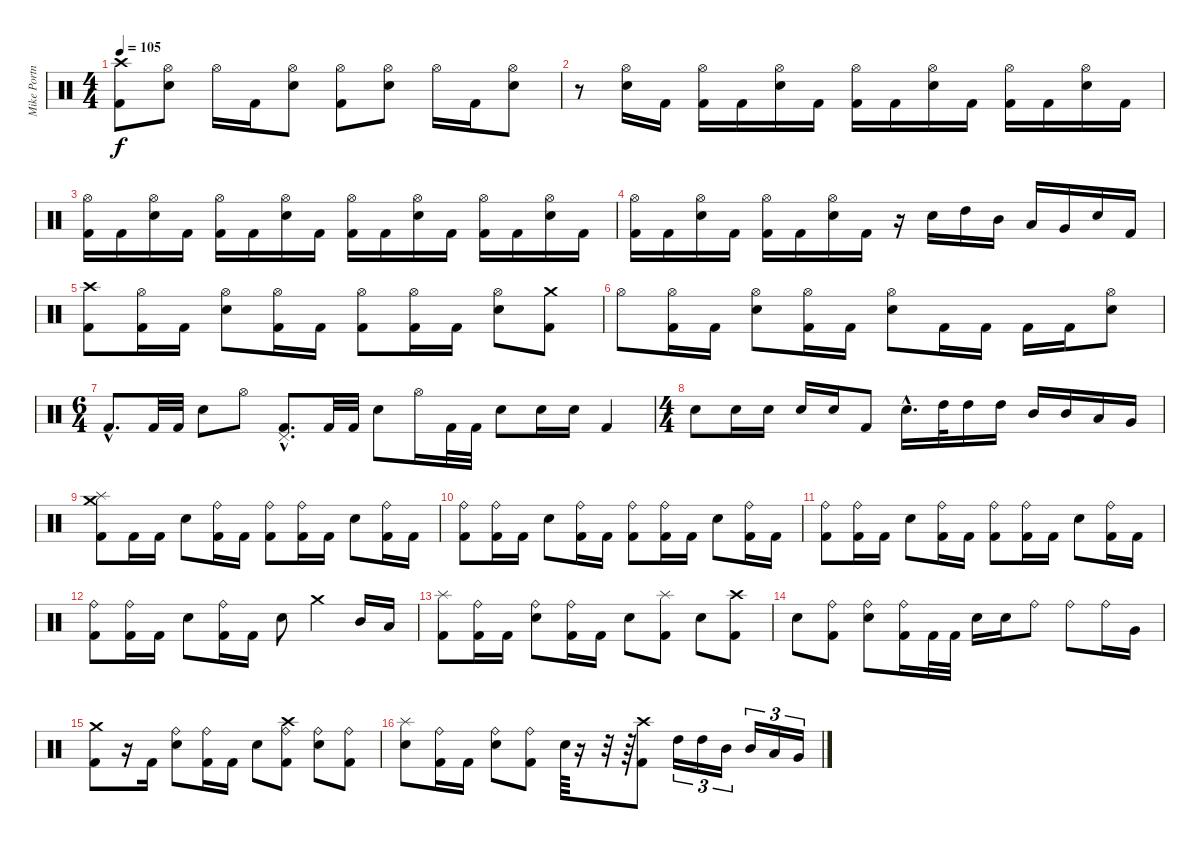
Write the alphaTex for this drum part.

\track ("Mike Portnoy" "Mike Portn") {instrument percussion}
\staff {score}
\articulation defaults
\ts (4 4)
\tempo 105
\clef neutral
\ks c
("Crash high (hit)" "Kick (hit) 2").8{dy f} ("Hi-Hat (open)" "Electric Snare (hit)").8 "Hi-Hat (open)".16 "Kick (hit) 2".16 ("Hi-Hat (open)" "Electric Snare (hit)").8 ("Hi-Hat (open)" "Kick (hit) 2").8 ("Hi-Hat (open)" "Electric Snare (hit)").8 "Hi-Hat (open)".16 "Kick (hit) 2".16 ("Hi-Hat (open)" "Electric Snare (hit)").8 |
r.8 ("Hi-Hat (open)" "Electric Snare (hit)").16 "Kick (hit) 2".16 ("Hi-Hat (open)" "Kick (hit) 2").16 "Kick (hit) 2".16 ("Hi-Hat (open)" "Electric Snare (hit)").16 "Kick (hit) 2".16 ("Hi-Hat (open)" "Kick (hit) 2").16 "Kick (hit) 2".16 ("Hi-Hat (open)" "Electric Snare (hit)").16 "Kick (hit) 2".16 ("Hi-Hat (open)" "Kick (hit) 2").16 "Kick (hit) 2".16 ("Hi-Hat (open)" "Electric Snare (hit)").16 "Kick (hit) 2".16 |
("Hi-Hat (open)" "Kick (hit) 2").16 "Kick (hit) 2".16 ("Hi-Hat (open)" "Electric Snare (hit)").16 "Kick (hit) 2".16 ("Hi-Hat (open)" "Kick (hit) 2").16 "Kick (hit) 2".16 ("Hi-Hat (open)" "Electric Snare (hit)").16 "Kick (hit) 2".16 ("Hi-Hat (open)" "Kick (hit) 2").16 "Kick (hit) 2".16 ("Hi-Hat (open)" "Electric Snare (hit)").16 "Kick (hit) 2".16 ("Hi-Hat (open)" "Kick (hit) 2").16 "Kick (hit) 2".16 ("Hi-Hat (open)" "Electric Snare (hit)").16 "Kick (hit) 2".16 |
("Hi-Hat (open)" "Kick (hit) 2").16 "Kick (hit) 2".16 ("Hi-Hat (open)" "Electric Snare (hit)").16 "Kick (hit) 2".16 ("Hi-Hat (open)" "Kick (hit) 2").16 "Kick (hit) 2".16 ("Hi-Hat (open)" "Electric Snare (hit)").16 "Kick (hit) 2".16 r.16 "Electric Snare (hit)".16 "High Tom (hit)".16 "Mid Tom (hit)".16 "Low Tom (hit)".16 "Very Low Tom (hit)".16 "Electric Snare (hit)".16 "Kick (hit) 2".16 |
("Crash high (hit)" "Kick (hit) 2").8 ("Hi-Hat (open)" "Kick (hit) 2").16 "Kick (hit) 2".16 ("Hi-Hat (open)" "Electric Snare (hit)").8 ("Hi-Hat (open)" "Kick (hit) 2").16 "Kick (hit) 2".16 ("Hi-Hat (open)" "Kick (hit) 2").8 ("Hi-Hat (open)" "Kick (hit) 2").16 "Kick (hit) 2".16 ("Hi-Hat (open)" "Electric Snare (hit)").8 ("Crash medium (hit)" "Kick (hit) 2").8 |
"Hi-Hat (open)".8 ("Hi-Hat (open)" "Kick (hit) 2").16 "Kick (hit) 2".16 ("Hi-Hat (open)" "Electric Snare (hit)").8 ("Hi-Hat (open)" "Kick (hit) 2").16 "Kick (hit) 2".16 ("Hi-Hat (open)" "Electric Snare (hit)").8 "Kick (hit) 2".16 "Kick (hit) 2".16 "Kick (hit) 2".16 "Kick (hit) 2".16 ("Hi-Hat (open)" "Electric Snare (hit)").8 |
\ts (6 4)
"Kick (hit) 2"{hac}.8{d} "Kick (hit) 2".32 "Kick (hit) 2".32 "Electric Snare (hit)".8 "Hi-Hat (open)".8 ("Pedal Hi-Hat (hit)"{hac} "Kick (hit) 2"{hac}).8{d} "Kick (hit) 2".32 "Kick (hit) 2".32 "Electric Snare (hit)".8 "Hi-Hat (open)".16 "Kick (hit) 2".32 "Kick (hit) 2".32 "Electric Snare (hit)".8 "Electric Snare (hit)".16 "Electric Snare (hit)".16 "Kick (hit) 2".4 |
\ts (4 4)
"Electric Snare (hit)".8 "Electric Snare (hit)".16 "Electric Snare (hit)".16 "Electric Snare (hit)".16 "Electric Snare (hit)".16 "Kick (hit) 2".8 "Electric Snare (hit)"{hac}.16{d} "High Tom (hit)".32 "High Tom (hit)".16 "High Tom (hit)".16 "Mid Tom (hit)".16 "Mid Tom (hit)".16 "Low Tom (hit)".16 "Very Low Tom (hit)".16 |
("Crash medium (hit)" "Splash (hit)" "Kick (hit) 2").8 "Kick (hit) 2".16 "Kick (hit) 2".16 "Electric Snare (hit)".8 ("Ride (bell)" "Kick (hit) 2").16 "Kick (hit) 2".16 ("Ride (bell)" "Kick (hit) 2").8 ("Ride (bell)" "Kick (hit) 2").16 "Kick (hit) 2".16 "Electric Snare (hit)".8 ("Ride (bell)" "Kick (hit) 2").16 "Kick (hit) 2".16 |
("Ride (bell)" "Kick (hit) 2").8 ("Ride (bell)" "Kick (hit) 2").16 "Kick (hit) 2".16 "Electric Snare (hit)".8 ("Ride (bell)" "Kick (hit) 2").16 "Kick (hit) 2".16 ("Ride (bell)" "Kick (hit) 2").8 ("Ride (bell)" "Kick (hit) 2").16 "Kick (hit) 2".16 "Electric Snare (hit)".8 ("Ride (bell)" "Kick (hit) 2").16 "Kick (hit) 2".16 |
("Ride (bell)" "Kick (hit) 2").8 ("Ride (bell)" "Kick (hit) 2").16 "Kick (hit) 2".16 "Electric Snare (hit)".8 ("Ride (bell)" "Kick (hit) 2").16 "Kick (hit) 2".16 ("Ride (bell)" "Kick (hit) 2").8 ("Ride (bell)" "Kick (hit) 2").16 "Kick (hit) 2".16 "Electric Snare (hit)".8 ("Ride (bell)" "Kick (hit) 2").16 "Kick (hit) 2".16 |
("Ride (bell)" "Kick (hit) 2").8 ("Ride (bell)" "Kick (hit) 2").16 "Kick (hit) 2".16 "Electric Snare (hit)".8 ("Ride (bell)" "Kick (hit) 2").16 "Kick (hit) 2".16 "Electric Snare (hit)".8 "Crash medium (hit)".4 "Mid Tom (hit)".16 "Low Tom (hit)".16 |
("Splash (hit)" "Kick (hit) 2").8 ("Ride (bell)" "Kick (hit) 2").16 "Kick (hit) 2".16 ("Ride (bell)" "Electric Snare (hit)").8 ("Ride (bell)" "Kick (hit) 2").16 "Kick (hit) 2".16 "Electric Snare (hit)".8 ("Splash (hit)" "Kick (hit) 2").8 "Electric Snare (hit)".8 ("Crash high (hit)" "Kick (hit) 2").8 |
"Electric Snare (hit)".8 ("Ride (bell)" "Kick (hit) 2").8 ("Ride (bell)" "Electric Snare (hit)").8 ("Ride (bell)" "Kick (hit) 2").16 "Kick (hit) 2".32 "Kick (hit) 2".32 "Electric Snare (hit)".16 "Electric Snare (hit)".16 "Ride (bell)".8 "Ride (bell)".8 "Ride (bell)".16 "Very Low Tom (hit)".16 |
("Crash medium (hit)" "Kick (hit) 2").8 r.16 "Kick (hit) 2".16 ("Ride (bell)" "Electric Snare (hit)").8 ("Ride (bell)" "Kick (hit) 2").16 "Kick (hit) 2".16 "Electric Snare (hit)".8 ("Ride (bell)" "Crash high (hit)" "Kick (hit) 2").8 ("Ride (bell)" "Electric Snare (hit)").8 ("Ride (bell)" "Kick (hit) 2").8 |
("Splash (hit)" "Electric Snare (hit)").8 ("Ride (bell)" "Kick (hit) 2").16 "Kick (hit) 2".16 ("Ride (bell)" "Electric Snare (hit)").8 ("Ride (bell)" "Kick (hit) 2").8 "Electric Snare (hit)".64 r.16 r.32 r.64 ("Crash high (hit)" "Kick (hit) 2").8 "High Tom (hit)".16{tu (3 2)} "High Tom (hit)".16{tu (3 2)} "Mid Tom (hit)".16{tu (3 2)} "Mid Tom (hit)".16{tu (3 2)} "Low Tom (hit)".16{tu (3 2)} "Very Low Tom (hit)".16{tu (3 2)}
